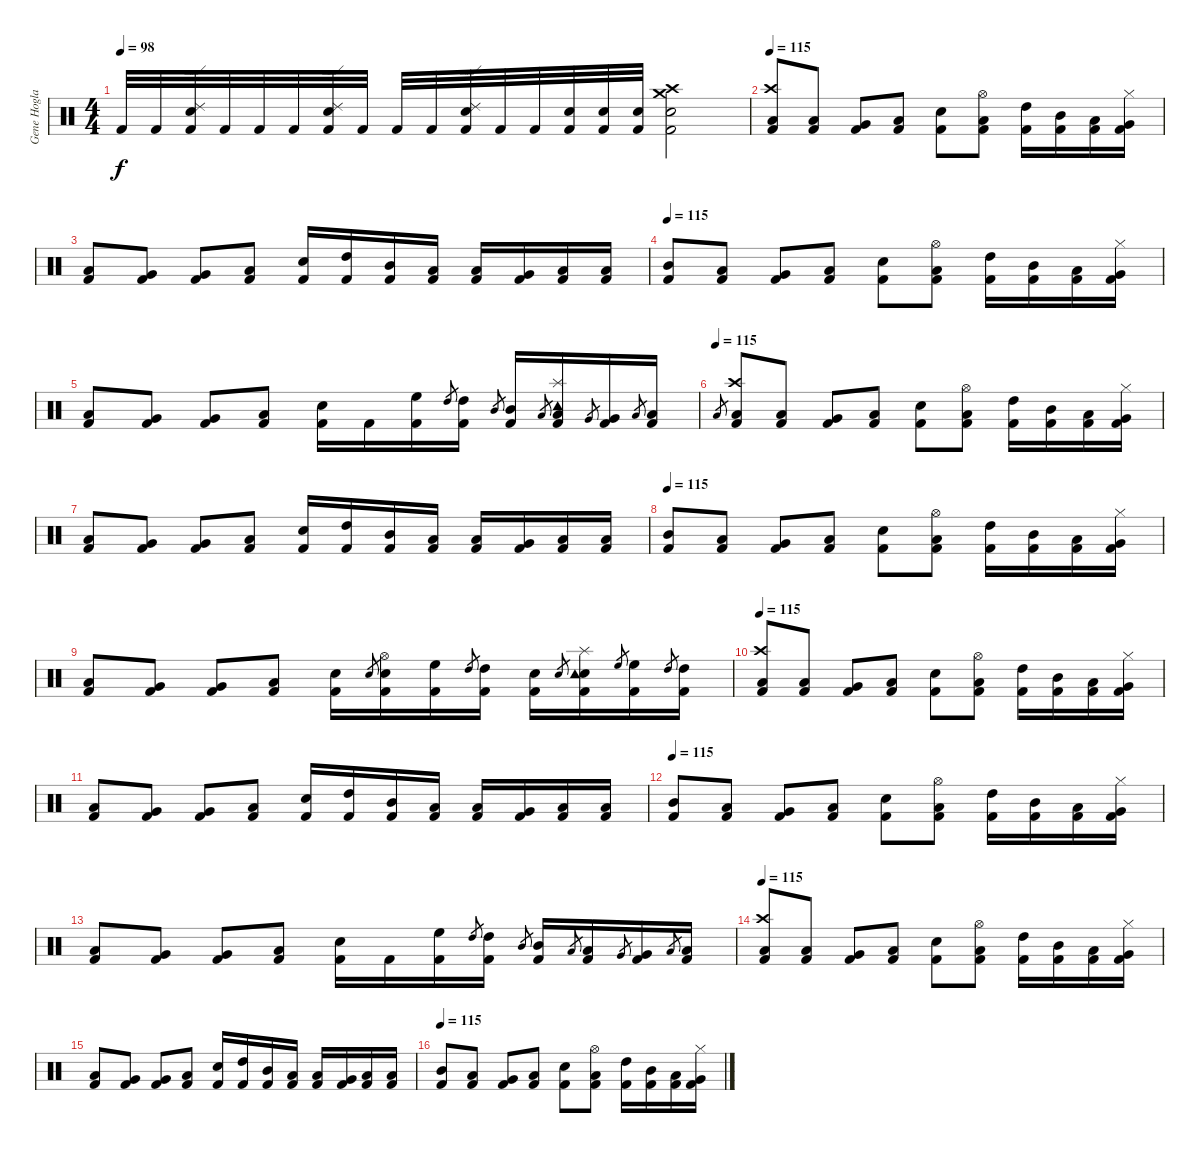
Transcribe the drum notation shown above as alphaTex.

\track ("Gene Hoglan" "Gene Hogla") {instrument percussion}
\staff {score}
\articulation defaults
\ts (4 4)
\tempo 98
\clef neutral
\ks c "Kick (hit) 2".32{dy f} "Kick (hit) 2".32
("Kick (hit) 2" "Electric Snare (hit)" "Ride (edge) 2").32 "Kick (hit) 2".32 "Kick (hit) 2".32 "Kick (hit) 2".32 ("Kick (hit) 2" "Electric Snare (hit)" "Ride (edge) 2").32 "Kick (hit) 2".32 "Kick (hit) 2".32 "Kick (hit) 2".32 ("Kick (hit) 2" "Electric Snare (hit)" "Ride (edge) 2").32 "Kick (hit) 2".32 "Kick (hit) 2".32 ("Kick (hit) 2" "Electric Snare (hit)").32 ("Kick (hit) 2" "Electric Snare (hit)").32 ("Kick (hit) 2" "Electric Snare (hit)").32 ("Kick (hit) 2" "Electric Snare (hit)" "Crash high (hit)" "Crash medium (hit)").2 |
\tempo 115
("Kick (hit) 2" "Low Tom (hit)" "Crash high (hit)").8 ("Kick (hit) 2" "Low Tom (hit)").8 ("Kick (hit) 2" "Very Low Tom (hit)").8 ("Kick (hit) 2" "Low Floor Tom (hit)").8 ("Kick (hit) 2" "Electric Snare (hit)").8 ("Kick (hit) 2" "Low Floor Tom (hit)" "Hi-Hat (open)").8 ("Kick (hit) 2" "High Tom (hit)").16 ("Kick (hit) 2" "Mid Tom (hit)").16 ("Kick (hit) 2" "Low Tom (hit)").16 ("Kick (hit) 2" "Very Low Tom (hit)" "Hi-Hat (closed)").16 |
("Kick (hit) 2" "Low Tom (hit)").8 ("Kick (hit) 2" "Very Low Tom (hit)").8 ("Kick (hit) 2" "Very Low Tom (hit)").8 ("Kick (hit) 2" "Low Floor Tom (hit)").8 ("Kick (hit) 2" "Electric Snare (hit)").16 ("Kick (hit) 2" "High Tom (hit)").16 ("Kick (hit) 2" "Mid Tom (hit)").16 ("Kick (hit) 2" "Low Tom (hit)").16 ("Kick (hit) 2" "Low Tom (hit)").16 ("Kick (hit) 2" "Very Low Tom (hit)").16 ("Kick (hit) 2" "Low Floor Tom (hit)").16 ("Kick (hit) 2" "Low Floor Tom (hit)").16 |
\tempo 115
("Kick (hit) 2" "Mid Tom (hit)").8 ("Kick (hit) 2" "Low Tom (hit)").8 ("Kick (hit) 2" "Very Low Tom (hit)").8 ("Kick (hit) 2" "Low Floor Tom (hit)").8 ("Kick (hit) 2" "Electric Snare (hit)").8 ("Kick (hit) 2" "Low Floor Tom (hit)" "Hi-Hat (open)").8 ("Kick (hit) 2" "High Tom (hit)").16 ("Kick (hit) 2" "Mid Tom (hit)").16 ("Kick (hit) 2" "Low Tom (hit)").16 ("Kick (hit) 2" "Very Low Tom (hit)" "Hi-Hat (closed)").16 |
("Kick (hit) 2" "Low Tom (hit)").8 ("Kick (hit) 2" "Very Low Tom (hit)").8 ("Kick (hit) 2" "Very Low Tom (hit)").8 ("Kick (hit) 2" "Low Floor Tom (hit)").8 ("Kick (hit) 2" "Electric Snare (hit)").16 "Kick (hit) 2".16 ("Kick (hit) 2" "High Floor Tom (hit)").16 "High Tom (hit)".8{gr} ("Kick (hit) 2" "High Tom (hit)").16 "Mid Tom (hit)".8{gr} ("Kick (hit) 2" "Mid Tom (hit)").16 "Low Tom (hit)".8{gr} ("Kick (hit) 2" "Low Tom (hit)" "Splash (hit)" "Tambourine (hit)").16 "Very Low Tom (hit)".8{gr} ("Kick (hit) 2" "Very Low Tom (hit)").16 "Low Floor Tom (hit)".8{gr} ("Kick (hit) 2" "Low Floor Tom (hit)").16 |
\tempo (115)
"Low Tom (hit)".8{gr} ("Kick (hit) 2" "Low Tom (hit)" "Crash high (hit)").8 ("Kick (hit) 2" "Low Tom (hit)").8 ("Kick (hit) 2" "Very Low Tom (hit)").8 ("Kick (hit) 2" "Low Floor Tom (hit)").8 ("Kick (hit) 2" "Electric Snare (hit)").8 ("Kick (hit) 2" "Low Floor Tom (hit)" "Hi-Hat (open)").8 ("Kick (hit) 2" "High Tom (hit)").16 ("Kick (hit) 2" "Mid Tom (hit)").16 ("Kick (hit) 2" "Low Tom (hit)").16 ("Kick (hit) 2" "Very Low Tom (hit)" "Hi-Hat (closed)").16 |
("Kick (hit) 2" "Low Tom (hit)").8 ("Kick (hit) 2" "Very Low Tom (hit)").8 ("Kick (hit) 2" "Very Low Tom (hit)").8 ("Kick (hit) 2" "Low Floor Tom (hit)").8 ("Kick (hit) 2" "Electric Snare (hit)").16 ("Kick (hit) 2" "High Tom (hit)").16 ("Kick (hit) 2" "Mid Tom (hit)").16 ("Kick (hit) 2" "Low Tom (hit)").16 ("Kick (hit) 2" "Low Tom (hit)").16 ("Kick (hit) 2" "Very Low Tom (hit)").16 ("Kick (hit) 2" "Low Floor Tom (hit)").16 ("Kick (hit) 2" "Low Floor Tom (hit)").16 |
\tempo 115
("Kick (hit) 2" "Mid Tom (hit)").8 ("Kick (hit) 2" "Low Tom (hit)").8 ("Kick (hit) 2" "Very Low Tom (hit)").8 ("Kick (hit) 2" "Low Floor Tom (hit)").8 ("Kick (hit) 2" "Electric Snare (hit)").8 ("Kick (hit) 2" "Low Floor Tom (hit)" "Hi-Hat (open)").8 ("Kick (hit) 2" "High Tom (hit)").16 ("Kick (hit) 2" "Mid Tom (hit)").16 ("Kick (hit) 2" "Low Tom (hit)").16 ("Kick (hit) 2" "Very Low Tom (hit)" "Hi-Hat (closed)").16 |
("Kick (hit) 2" "Low Tom (hit)").8 ("Kick (hit) 2" "Very Low Tom (hit)").8 ("Kick (hit) 2" "Very Low Tom (hit)").8 ("Kick (hit) 2" "Low Floor Tom (hit)").8 ("Kick (hit) 2" "Electric Snare (hit)").16 "Electric Snare (hit)".8{gr} ("Kick (hit) 2" "Electric Snare (hit)" "Hi-Hat (open)").16 ("Kick (hit) 2" "High Floor Tom (hit)").16 "High Tom (hit)".8{gr} ("Kick (hit) 2" "High Tom (hit)").16 ("Kick (hit) 2" "Electric Snare (hit)").16 "Electric Snare (hit)".8{gr} ("Kick (hit) 2" "Electric Snare (hit)" "Splash (hit)" "Tambourine (hit)").16 "High Floor Tom (hit)".8{gr} ("Kick (hit) 2" "High Floor Tom (hit)").16 "High Tom (hit)".8{gr} ("Kick (hit) 2" "High Tom (hit)").16 |
\tempo 115
("Kick (hit) 2" "Low Tom (hit)" "Crash high (hit)").8 ("Kick (hit) 2" "Low Tom (hit)").8 ("Kick (hit) 2" "Very Low Tom (hit)").8 ("Kick (hit) 2" "Low Floor Tom (hit)").8 ("Kick (hit) 2" "Electric Snare (hit)").8 ("Kick (hit) 2" "Low Floor Tom (hit)" "Hi-Hat (open)").8 ("Kick (hit) 2" "High Tom (hit)").16 ("Kick (hit) 2" "Mid Tom (hit)").16 ("Kick (hit) 2" "Low Tom (hit)").16 ("Kick (hit) 2" "Very Low Tom (hit)" "Hi-Hat (closed)").16 |
("Kick (hit) 2" "Low Tom (hit)").8 ("Kick (hit) 2" "Very Low Tom (hit)").8 ("Kick (hit) 2" "Very Low Tom (hit)").8 ("Kick (hit) 2" "Low Floor Tom (hit)").8 ("Kick (hit) 2" "Electric Snare (hit)").16 ("Kick (hit) 2" "High Tom (hit)").16 ("Kick (hit) 2" "Mid Tom (hit)").16 ("Kick (hit) 2" "Low Tom (hit)").16 ("Kick (hit) 2" "Low Tom (hit)").16 ("Kick (hit) 2" "Very Low Tom (hit)").16 ("Kick (hit) 2" "Low Floor Tom (hit)").16 ("Kick (hit) 2" "Low Floor Tom (hit)").16 |
\tempo 115
("Kick (hit) 2" "Mid Tom (hit)").8 ("Kick (hit) 2" "Low Tom (hit)").8 ("Kick (hit) 2" "Very Low Tom (hit)").8 ("Kick (hit) 2" "Low Floor Tom (hit)").8 ("Kick (hit) 2" "Electric Snare (hit)").8 ("Kick (hit) 2" "Low Floor Tom (hit)" "Hi-Hat (open)").8 ("Kick (hit) 2" "High Tom (hit)").16 ("Kick (hit) 2" "Mid Tom (hit)").16 ("Kick (hit) 2" "Low Tom (hit)").16 ("Kick (hit) 2" "Very Low Tom (hit)" "Hi-Hat (closed)").16 |
("Kick (hit) 2" "Low Tom (hit)").8 ("Kick (hit) 2" "Very Low Tom (hit)").8 ("Kick (hit) 2" "Very Low Tom (hit)").8 ("Kick (hit) 2" "Low Floor Tom (hit)").8 ("Kick (hit) 2" "Electric Snare (hit)").16 "Kick (hit) 2".16 ("Kick (hit) 2" "High Floor Tom (hit)").16 "High Tom (hit)".8{gr} ("Kick (hit) 2" "High Tom (hit)").16 "Mid Tom (hit)".8{gr} ("Kick (hit) 2" "Mid Tom (hit)").16 "Low Tom (hit)".8{gr} ("Kick (hit) 2" "Low Tom (hit)").16 "Very Low Tom (hit)".8{gr} ("Kick (hit) 2" "Very Low Tom (hit)").16 "Low Floor Tom (hit)".8{gr} ("Kick (hit) 2" "Low Floor Tom (hit)").16 |
\tempo 115
("Kick (hit) 2" "Low Tom (hit)" "Crash high (hit)").8 ("Kick (hit) 2" "Low Tom (hit)").8 ("Kick (hit) 2" "Very Low Tom (hit)").8 ("Kick (hit) 2" "Low Floor Tom (hit)").8 ("Kick (hit) 2" "Electric Snare (hit)").8 ("Kick (hit) 2" "Low Floor Tom (hit)" "Hi-Hat (open)").8 ("Kick (hit) 2" "High Tom (hit)").16 ("Kick (hit) 2" "Mid Tom (hit)").16 ("Kick (hit) 2" "Low Tom (hit)").16 ("Kick (hit) 2" "Very Low Tom (hit)" "Hi-Hat (closed)").16 |
("Kick (hit) 2" "Low Tom (hit)").8 ("Kick (hit) 2" "Very Low Tom (hit)").8 ("Kick (hit) 2" "Very Low Tom (hit)").8 ("Kick (hit) 2" "Low Floor Tom (hit)").8 ("Kick (hit) 2" "Electric Snare (hit)").16 ("Kick (hit) 2" "High Tom (hit)").16 ("Kick (hit) 2" "Mid Tom (hit)").16 ("Kick (hit) 2" "Low Tom (hit)").16 ("Kick (hit) 2" "Low Tom (hit)").16 ("Kick (hit) 2" "Very Low Tom (hit)").16 ("Kick (hit) 2" "Low Floor Tom (hit)").16 ("Kick (hit) 2" "Low Floor Tom (hit)").16 |
\tempo 115
("Kick (hit) 2" "Mid Tom (hit)").8 ("Kick (hit) 2" "Low Tom (hit)").8 ("Kick (hit) 2" "Very Low Tom (hit)").8 ("Kick (hit) 2" "Low Floor Tom (hit)").8 ("Kick (hit) 2" "Electric Snare (hit)").8 ("Kick (hit) 2" "Low Floor Tom (hit)" "Hi-Hat (open)").8 ("Kick (hit) 2" "High Tom (hit)").16 ("Kick (hit) 2" "Mid Tom (hit)").16 ("Kick (hit) 2" "Low Tom (hit)").16 ("Kick (hit) 2" "Very Low Tom (hit)" "Hi-Hat (closed)").16
